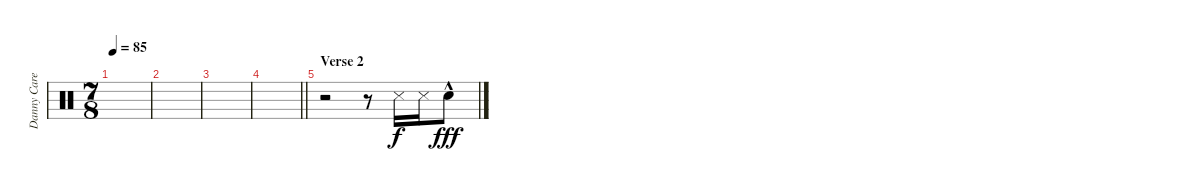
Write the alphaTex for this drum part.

\track ("Danny Carey" "Danny Care") {instrument percussion}
\staff {score}
\articulation defaults
\ts (7 8)
\tempo 85
\clef neutral
\ks c
|
|
|
\barLineRight lightlight
|
\section ("" "Verse 2")
r.2 r.8 "Snare (side stick) 3".16 "Snare (side stick) 3".16 "Hand Clap (hit)"{hac}.8{dy fff}
